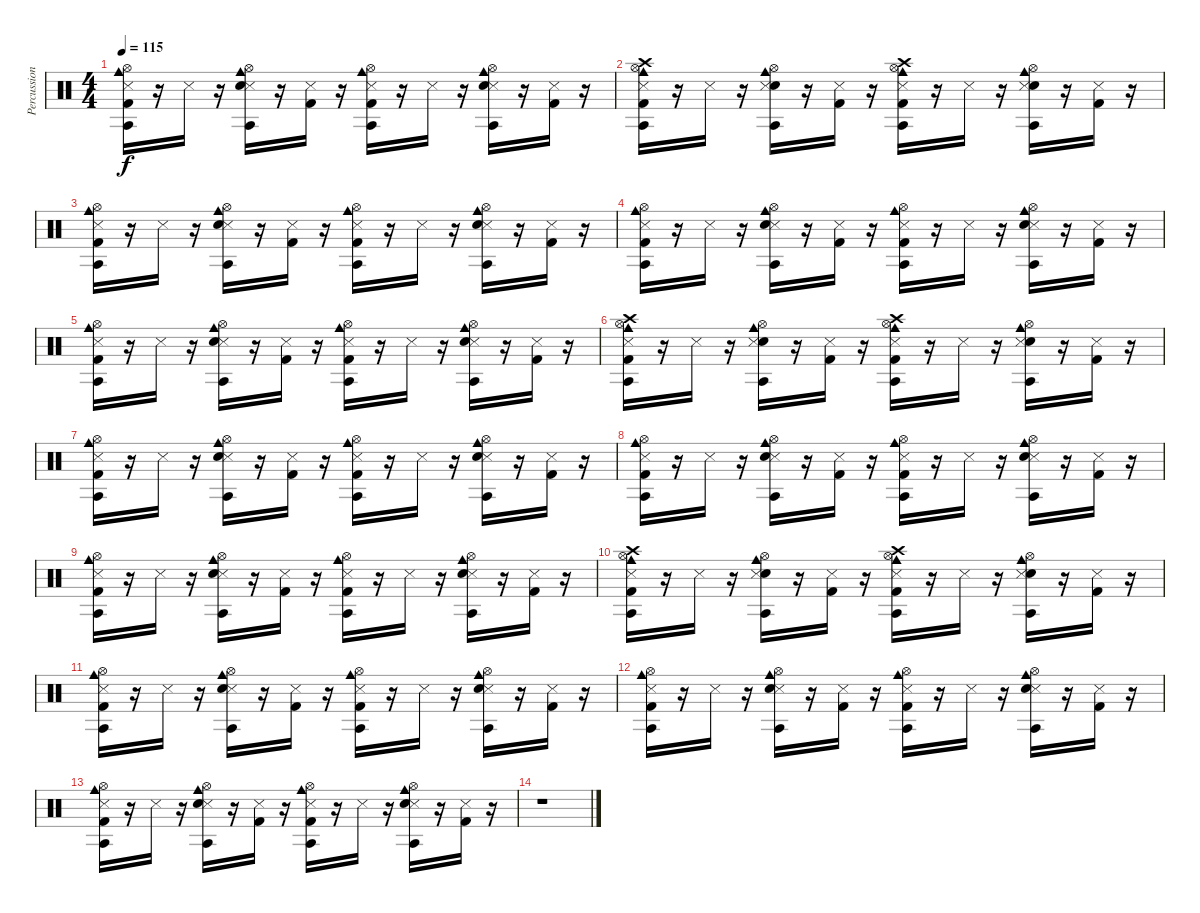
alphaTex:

\track ("Percussion" "Percussion") {instrument percussion}
\staff {score}
\articulation defaults
\ts (4 4)
\tempo 115
\clef neutral
\ks c
("Hi-Hat (open)" "Snare (side stick) 3" "Agogo tow (hit)" "Kick (hit) 2" "Cowbell medium (hit)").16{dy f} r.16 "Snare (side stick) 3".16 r.16 ("Hi-Hat (open)" "Snare (side stick) 3" "Agogo tow (hit)" "Snare (hit) 2" "Cowbell medium (hit)").16 r.16 ("Snare (side stick) 3" "Kick (hit) 2").16 r.16 ("Hi-Hat (open)" "Snare (side stick) 3" "Agogo tow (hit)" "Kick (hit) 2" "Cowbell medium (hit)").16 r.16 "Snare (side stick) 3".16 r.16 ("Hi-Hat (open)" "Snare (side stick) 3" "Agogo tow (hit)" "Snare (hit) 2" "Cowbell medium (hit)").16 r.16 ("Snare (side stick) 3" "Kick (hit) 2").16 r.16 |
("Hi-Hat (open)" "Kick (hit) 2" "Agogo tow (hit)" "Crash high (hit)" "Cowbell medium (hit)" "Snare (side stick) 3").16 r.16 "Snare (side stick) 3".16 r.16 ("Hi-Hat (open)" "Snare (hit) 2" "Agogo tow (hit)" "Cowbell medium (hit)" "Snare (side stick) 3").16 r.16 ("Kick (hit) 2" "Snare (side stick) 3").16 r.16 ("Crash high (hit)" "Hi-Hat (open)" "Kick (hit) 2" "Agogo tow (hit)" "Cowbell medium (hit)" "Snare (side stick) 3").16 r.16 "Snare (side stick) 3".16 r.16 ("Hi-Hat (open)" "Snare (hit) 2" "Agogo tow (hit)" "Cowbell medium (hit)" "Snare (side stick) 3").16 r.16 ("Kick (hit) 2" "Snare (side stick) 3").16 r.16 |
("Hi-Hat (open)" "Cowbell medium (hit)" "Snare (side stick) 3" "Agogo tow (hit)" "Kick (hit) 2").16 r.16 "Snare (side stick) 3".16 r.16 ("Hi-Hat (open)" "Cowbell medium (hit)" "Snare (side stick) 3" "Agogo tow (hit)" "Snare (hit) 2").16 r.16 ("Snare (side stick) 3" "Kick (hit) 2").16 r.16 ("Hi-Hat (open)" "Cowbell medium (hit)" "Snare (side stick) 3" "Agogo tow (hit)" "Kick (hit) 2").16 r.16 "Snare (side stick) 3".16 r.16 ("Hi-Hat (open)" "Cowbell medium (hit)" "Snare (side stick) 3" "Agogo tow (hit)" "Snare (hit) 2").16 r.16 ("Snare (side stick) 3" "Kick (hit) 2").16 r.16 |
("Hi-Hat (open)" "Snare (side stick) 3" "Agogo tow (hit)" "Kick (hit) 2" "Cowbell medium (hit)").16 r.16 "Snare (side stick) 3".16 r.16 ("Hi-Hat (open)" "Snare (side stick) 3" "Agogo tow (hit)" "Snare (hit) 2" "Cowbell medium (hit)").16 r.16 ("Snare (side stick) 3" "Kick (hit) 2").16 r.16 ("Hi-Hat (open)" "Snare (side stick) 3" "Agogo tow (hit)" "Kick (hit) 2" "Cowbell medium (hit)").16 r.16 "Snare (side stick) 3".16 r.16 ("Hi-Hat (open)" "Snare (side stick) 3" "Agogo tow (hit)" "Snare (hit) 2" "Cowbell medium (hit)").16 r.16 ("Snare (side stick) 3" "Kick (hit) 2").16 r.16 |
("Hi-Hat (open)" "Snare (side stick) 3" "Agogo tow (hit)" "Kick (hit) 2" "Cowbell medium (hit)").16 r.16 "Snare (side stick) 3".16 r.16 ("Hi-Hat (open)" "Snare (side stick) 3" "Agogo tow (hit)" "Snare (hit) 2" "Cowbell medium (hit)").16 r.16 ("Snare (side stick) 3" "Kick (hit) 2").16 r.16 ("Hi-Hat (open)" "Snare (side stick) 3" "Agogo tow (hit)" "Kick (hit) 2" "Cowbell medium (hit)").16 r.16 "Snare (side stick) 3".16 r.16 ("Hi-Hat (open)" "Snare (side stick) 3" "Agogo tow (hit)" "Snare (hit) 2" "Cowbell medium (hit)").16 r.16 ("Snare (side stick) 3" "Kick (hit) 2").16 r.16 |
("Hi-Hat (open)" "Kick (hit) 2" "Agogo tow (hit)" "Crash high (hit)" "Cowbell medium (hit)" "Snare (side stick) 3").16 r.16 "Snare (side stick) 3".16 r.16 ("Hi-Hat (open)" "Snare (hit) 2" "Agogo tow (hit)" "Cowbell medium (hit)" "Snare (side stick) 3").16 r.16 ("Kick (hit) 2" "Snare (side stick) 3").16 r.16 ("Crash high (hit)" "Hi-Hat (open)" "Kick (hit) 2" "Agogo tow (hit)" "Cowbell medium (hit)" "Snare (side stick) 3").16 r.16 "Snare (side stick) 3".16 r.16 ("Hi-Hat (open)" "Snare (hit) 2" "Agogo tow (hit)" "Cowbell medium (hit)" "Snare (side stick) 3").16 r.16 ("Kick (hit) 2" "Snare (side stick) 3").16 r.16 |
("Hi-Hat (open)" "Cowbell medium (hit)" "Snare (side stick) 3" "Agogo tow (hit)" "Kick (hit) 2").16 r.16 "Snare (side stick) 3".16 r.16 ("Hi-Hat (open)" "Cowbell medium (hit)" "Snare (side stick) 3" "Agogo tow (hit)" "Snare (hit) 2").16 r.16 ("Snare (side stick) 3" "Kick (hit) 2").16 r.16 ("Hi-Hat (open)" "Cowbell medium (hit)" "Snare (side stick) 3" "Agogo tow (hit)" "Kick (hit) 2").16 r.16 "Snare (side stick) 3".16 r.16 ("Hi-Hat (open)" "Cowbell medium (hit)" "Snare (side stick) 3" "Agogo tow (hit)" "Snare (hit) 2").16 r.16 ("Snare (side stick) 3" "Kick (hit) 2").16 r.16 |
("Hi-Hat (open)" "Snare (side stick) 3" "Agogo tow (hit)" "Kick (hit) 2" "Cowbell medium (hit)").16 r.16 "Snare (side stick) 3".16 r.16 ("Hi-Hat (open)" "Snare (side stick) 3" "Agogo tow (hit)" "Snare (hit) 2" "Cowbell medium (hit)").16 r.16 ("Snare (side stick) 3" "Kick (hit) 2").16 r.16 ("Hi-Hat (open)" "Snare (side stick) 3" "Agogo tow (hit)" "Kick (hit) 2" "Cowbell medium (hit)").16 r.16 "Snare (side stick) 3".16 r.16 ("Hi-Hat (open)" "Snare (side stick) 3" "Agogo tow (hit)" "Snare (hit) 2" "Cowbell medium (hit)").16 r.16 ("Snare (side stick) 3" "Kick (hit) 2").16 r.16 |
("Hi-Hat (open)" "Snare (side stick) 3" "Agogo tow (hit)" "Kick (hit) 2" "Cowbell medium (hit)").16 r.16 "Snare (side stick) 3".16 r.16 ("Hi-Hat (open)" "Snare (side stick) 3" "Agogo tow (hit)" "Snare (hit) 2" "Cowbell medium (hit)").16 r.16 ("Snare (side stick) 3" "Kick (hit) 2").16 r.16 ("Hi-Hat (open)" "Snare (side stick) 3" "Agogo tow (hit)" "Kick (hit) 2" "Cowbell medium (hit)").16 r.16 "Snare (side stick) 3".16 r.16 ("Hi-Hat (open)" "Snare (side stick) 3" "Agogo tow (hit)" "Snare (hit) 2" "Cowbell medium (hit)").16 r.16 ("Snare (side stick) 3" "Kick (hit) 2").16 r.16 |
("Hi-Hat (open)" "Kick (hit) 2" "Agogo tow (hit)" "Crash high (hit)" "Cowbell medium (hit)" "Snare (side stick) 3").16 r.16 "Snare (side stick) 3".16 r.16 ("Hi-Hat (open)" "Snare (hit) 2" "Agogo tow (hit)" "Cowbell medium (hit)" "Snare (side stick) 3").16 r.16 ("Kick (hit) 2" "Snare (side stick) 3").16 r.16 ("Crash high (hit)" "Hi-Hat (open)" "Kick (hit) 2" "Agogo tow (hit)" "Cowbell medium (hit)" "Snare (side stick) 3").16 r.16 "Snare (side stick) 3".16 r.16 ("Hi-Hat (open)" "Snare (hit) 2" "Agogo tow (hit)" "Cowbell medium (hit)" "Snare (side stick) 3").16 r.16 ("Kick (hit) 2" "Snare (side stick) 3").16 r.16 |
("Hi-Hat (open)" "Cowbell medium (hit)" "Snare (side stick) 3" "Agogo tow (hit)" "Kick (hit) 2").16 r.16 "Snare (side stick) 3".16 r.16 ("Hi-Hat (open)" "Cowbell medium (hit)" "Snare (side stick) 3" "Agogo tow (hit)" "Snare (hit) 2").16 r.16 ("Snare (side stick) 3" "Kick (hit) 2").16 r.16 ("Hi-Hat (open)" "Cowbell medium (hit)" "Snare (side stick) 3" "Agogo tow (hit)" "Kick (hit) 2").16 r.16 "Snare (side stick) 3".16 r.16 ("Hi-Hat (open)" "Cowbell medium (hit)" "Snare (side stick) 3" "Agogo tow (hit)" "Snare (hit) 2").16 r.16 ("Snare (side stick) 3" "Kick (hit) 2").16 r.16 |
("Hi-Hat (open)" "Snare (side stick) 3" "Agogo tow (hit)" "Kick (hit) 2" "Cowbell medium (hit)").16 r.16 "Snare (side stick) 3".16 r.16 ("Hi-Hat (open)" "Snare (side stick) 3" "Agogo tow (hit)" "Snare (hit) 2" "Cowbell medium (hit)").16 r.16 ("Snare (side stick) 3" "Kick (hit) 2").16 r.16 ("Hi-Hat (open)" "Snare (side stick) 3" "Agogo tow (hit)" "Kick (hit) 2" "Cowbell medium (hit)").16 r.16 "Snare (side stick) 3".16 r.16 ("Hi-Hat (open)" "Snare (side stick) 3" "Agogo tow (hit)" "Snare (hit) 2" "Cowbell medium (hit)").16 r.16 ("Snare (side stick) 3" "Kick (hit) 2").16 r.16 |
("Hi-Hat (open)" "Snare (side stick) 3" "Agogo tow (hit)" "Kick (hit) 2" "Cowbell medium (hit)").16 r.16 "Snare (side stick) 3".16 r.16 ("Hi-Hat (open)" "Snare (side stick) 3" "Agogo tow (hit)" "Snare (hit) 2" "Cowbell medium (hit)").16 r.16 ("Snare (side stick) 3" "Kick (hit) 2").16 r.16 ("Hi-Hat (open)" "Snare (side stick) 3" "Agogo tow (hit)" "Kick (hit) 2" "Cowbell medium (hit)").16 r.16 "Snare (side stick) 3".16 r.16 ("Hi-Hat (open)" "Snare (side stick) 3" "Agogo tow (hit)" "Snare (hit) 2" "Cowbell medium (hit)").16 r.16 ("Snare (side stick) 3" "Kick (hit) 2").16 r.16 |
r.1
